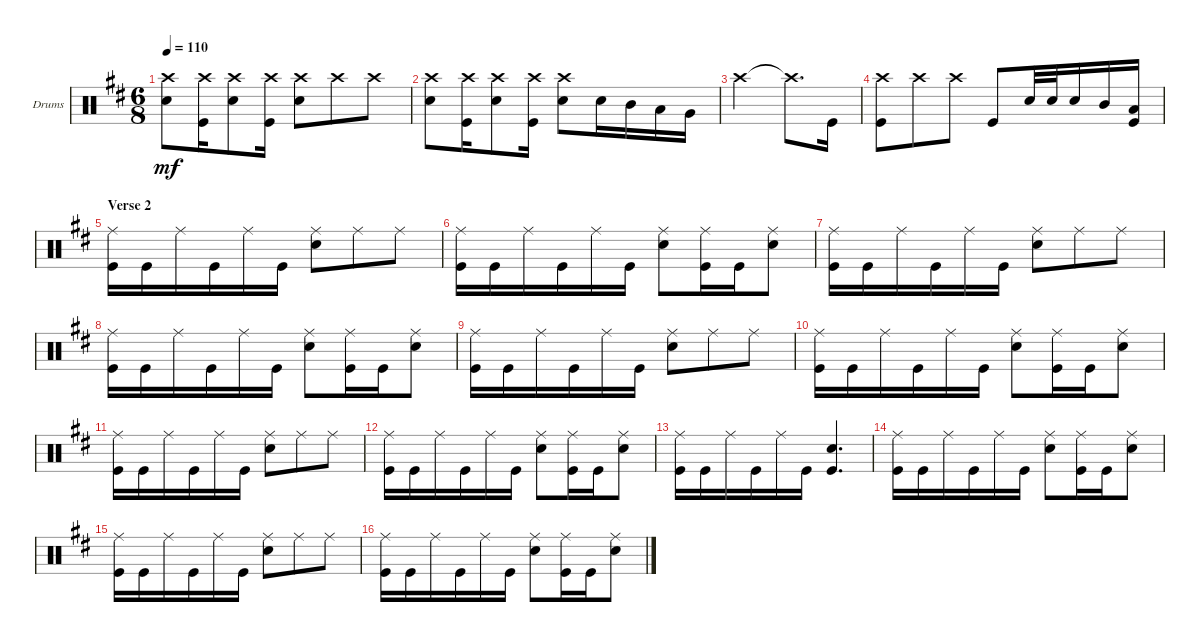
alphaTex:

\defaultSystemsLayout 4
\bracketExtendMode groupsimilarinstruments
\firstSystemTrackNameOrientation horizontal
\otherSystemsTrackNameOrientation horizontal
\track ("Drumkit" "Drums") {instrument percussion}
\staff {score}
\articulation defaults
\ts (6 8)
\tempo 110
\clef neutral
\ks d
("Crash high (hit)" "Snare (hit) 2").8{dy mf} ("Kick (hit)" "Crash high (hit)").16 ("Crash high (hit)" "Snare (hit) 2").8 ("Kick (hit)" "Crash high (hit)").16 ("Snare (hit) 2" "Crash high (hit)").8 "Crash high (hit)".8 "Crash high (hit)".8 |
("Crash high (hit)" "Snare (hit) 2").8 ("Kick (hit)" "Crash high (hit)").16 ("Crash high (hit)" "Snare (hit) 2").8 ("Kick (hit)" "Crash high (hit)").16 ("Snare (hit) 2" "Crash high (hit)").8 "Snare (hit) 2".16 "Mid Tom (hit)".16 "Low Tom (hit)".16 "Very Low Tom (hit)".16 |
"Crash high (hit)".2 "Crash high (hit)"{t}.8{d} "Kick (hit)".16 |
("Kick (hit)" "Crash high (hit)").8 "Crash high (hit)".8 "Crash high (hit)".8 "Kick (hit)".8 "Snare (hit) 2".32 "Snare (hit) 2".32 "Snare (hit) 2".16 "Mid Tom (hit)".16 ("Kick (hit)" "Low Tom (hit)").16 |
\section ("" "Verse 2")
("Kick (hit)" "Ride (middle)").16 "Kick (hit)".16 "Ride (middle)".16 "Kick (hit)".16 "Ride (middle)".16 "Kick (hit)".16 ("Snare (hit) 2" "Ride (middle)").8 "Ride (middle)".8 "Ride (middle)".8 |
("Kick (hit)" "Ride (middle)").16 "Kick (hit)".16 "Ride (middle)".16 "Kick (hit)".16 "Ride (middle)".16 "Kick (hit)".16 ("Snare (hit) 2" "Ride (middle)").8 ("Kick (hit)" "Ride (middle)").16 "Kick (hit)".16 ("Snare (hit) 2" "Ride (middle)").8 |
("Kick (hit)" "Ride (middle)").16 "Kick (hit)".16 "Ride (middle)".16 "Kick (hit)".16 "Ride (middle)".16 "Kick (hit)".16 ("Snare (hit) 2" "Ride (middle)").8 "Ride (middle)".8 "Ride (middle)".8 |
("Kick (hit)" "Ride (middle)").16 "Kick (hit)".16 "Ride (middle)".16 "Kick (hit)".16 "Ride (middle)".16 "Kick (hit)".16 ("Snare (hit) 2" "Ride (middle)").8 ("Kick (hit)" "Ride (middle)").16 "Kick (hit)".16 ("Snare (hit) 2" "Ride (middle)").8 |
("Kick (hit)" "Ride (middle)").16 "Kick (hit)".16 "Ride (middle)".16 "Kick (hit)".16 "Ride (middle)".16 "Kick (hit)".16 ("Snare (hit) 2" "Ride (middle)").8 "Ride (middle)".8 "Ride (middle)".8 |
("Kick (hit)" "Ride (middle)").16 "Kick (hit)".16 "Ride (middle)".16 "Kick (hit)".16 "Ride (middle)".16 "Kick (hit)".16 ("Snare (hit) 2" "Ride (middle)").8 ("Kick (hit)" "Ride (middle)").16 "Kick (hit)".16 ("Snare (hit) 2" "Ride (middle)").8 |
("Kick (hit)" "Ride (middle)").16 "Kick (hit)".16 "Ride (middle)".16 "Kick (hit)".16 "Ride (middle)".16 "Kick (hit)".16 ("Snare (hit) 2" "Ride (middle)").8 "Ride (middle)".8 "Ride (middle)".8 |
("Kick (hit)" "Ride (middle)").16 "Kick (hit)".16 "Ride (middle)".16 "Kick (hit)".16 "Ride (middle)".16 "Kick (hit)".16 ("Snare (hit) 2" "Ride (middle)").8 ("Kick (hit)" "Ride (middle)").16 "Kick (hit)".16 ("Snare (hit) 2" "Ride (middle)").8 |
("Kick (hit)" "Ride (middle)").16 "Kick (hit)".16 "Ride (middle)".16 "Kick (hit)".16 "Ride (middle)".16 "Kick (hit)".16 ("Snare (hit) 2" "Kick (hit)").4{d} |
("Kick (hit)" "Ride (middle)").16 "Kick (hit)".16 "Ride (middle)".16 "Kick (hit)".16 "Ride (middle)".16 "Kick (hit)".16 ("Snare (hit) 2" "Ride (middle)").8 ("Kick (hit)" "Ride (middle)").16 "Kick (hit)".16 ("Snare (hit) 2" "Ride (middle)").8 |
("Kick (hit)" "Ride (middle)").16 "Kick (hit)".16 "Ride (middle)".16 "Kick (hit)".16 "Ride (middle)".16 "Kick (hit)".16 ("Snare (hit) 2" "Ride (middle)").8 "Ride (middle)".8 "Ride (middle)".8 |
("Kick (hit)" "Ride (middle)").16 "Kick (hit)".16 "Ride (middle)".16 "Kick (hit)".16 "Ride (middle)".16 "Kick (hit)".16 ("Snare (hit) 2" "Ride (middle)").8 ("Kick (hit)" "Ride (middle)").16 "Kick (hit)".16 ("Snare (hit) 2" "Ride (middle)").8
